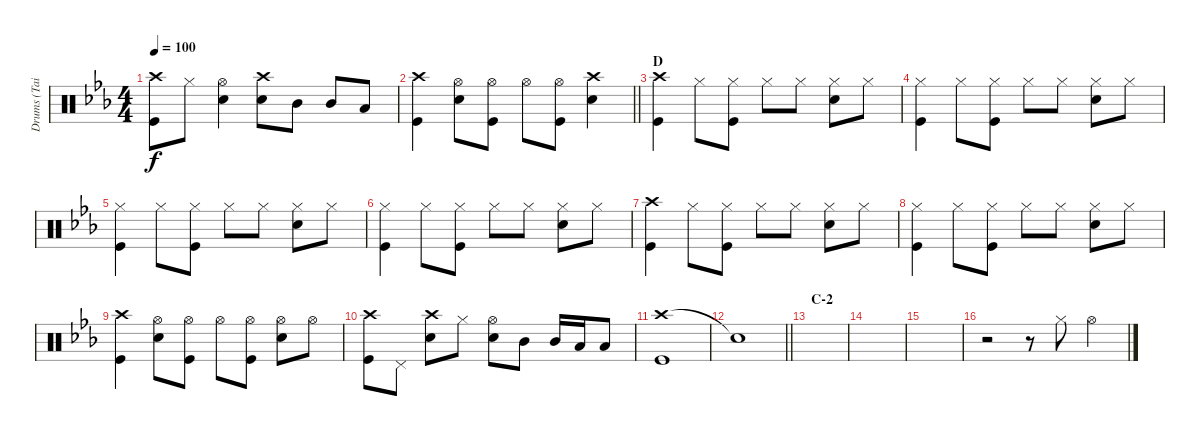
\track ("Drums (Tainaka Ritsu)" "Drums (Tai") {instrument percussion}
\staff {score}
\articulation defaults
\ts (4 4)
\tempo 100
\clef neutral
\ks eb
("Crash high (hit)" "Kick (hit)").8{dy f} "Hi-Hat (closed)".8 ("Hi-Hat (open)" "Snare (hit) 2").4 ("Crash high (hit)" "Snare (hit) 2").8 "Mid Tom (hit)".8 "Mid Tom (hit)".8 "Low Tom (hit)".8 |
\barLineRight lightlight
("Crash high (hit)" "Kick (hit)").4 ("Hi-Hat (open)" "Snare (hit) 2").8 ("Hi-Hat (open)" "Kick (hit)").8 "Hi-Hat (open)".8 ("Hi-Hat (open)" "Kick (hit)").8 ("Crash high (hit)" "Snare (hit) 2").4 |
\section ("" "D")
("Crash high (hit)" "Kick (hit)").4 "Hi-Hat (closed)".8 ("Hi-Hat (closed)" "Kick (hit)").8 "Hi-Hat (closed)".8 "Hi-Hat (closed)".8 ("Hi-Hat (closed)" "Snare (hit) 2").8 "Hi-Hat (closed)".8 |
("Hi-Hat (closed)" "Kick (hit)").4 "Hi-Hat (closed)".8 ("Hi-Hat (closed)" "Kick (hit)").8 "Hi-Hat (closed)".8 "Hi-Hat (closed)".8 ("Hi-Hat (closed)" "Snare (hit) 2").8 "Hi-Hat (closed)".8 |
("Hi-Hat (closed)" "Kick (hit)").4 "Hi-Hat (closed)".8 ("Hi-Hat (closed)" "Kick (hit)").8 "Hi-Hat (closed)".8 "Hi-Hat (closed)".8 ("Hi-Hat (closed)" "Snare (hit) 2").8 "Hi-Hat (closed)".8 |
("Hi-Hat (closed)" "Kick (hit)").4 "Hi-Hat (closed)".8 ("Hi-Hat (closed)" "Kick (hit)").8 "Hi-Hat (closed)".8 "Hi-Hat (closed)".8 ("Hi-Hat (closed)" "Snare (hit) 2").8 "Hi-Hat (closed)".8 |
("Crash high (hit)" "Kick (hit)").4 "Hi-Hat (closed)".8 ("Hi-Hat (closed)" "Kick (hit)").8 "Hi-Hat (closed)".8 "Hi-Hat (closed)".8 ("Hi-Hat (closed)" "Snare (hit) 2").8 "Hi-Hat (closed)".8 |
("Hi-Hat (closed)" "Kick (hit)").4 "Hi-Hat (closed)".8 ("Hi-Hat (closed)" "Kick (hit)").8 "Hi-Hat (closed)".8 "Hi-Hat (closed)".8 ("Hi-Hat (closed)" "Snare (hit) 2").8 "Hi-Hat (closed)".8 |
("Crash high (hit)" "Kick (hit)").4 ("Hi-Hat (open)" "Snare (hit) 2").8 ("Hi-Hat (open)" "Kick (hit)").8 "Hi-Hat (open)".8 ("Hi-Hat (open)" "Kick (hit)").8 ("Hi-Hat (open)" "Snare (hit) 2").8 "Hi-Hat (open)".8 |
("Crash high (hit)" "Kick (hit)").8 "Pedal Hi-Hat (hit)".8 ("Crash high (hit)" "Snare (hit) 2").8 "Hi-Hat (closed)".8 ("Hi-Hat (open)" "Snare (hit) 2").8 "Mid Tom (hit)".8 "Mid Tom (hit)".16 "Low Tom (hit)".16 "Low Tom (hit)".8 |
("Crash high (hit)" "Kick (hit)").1 |
\barLineRight lightlight "Snare (hit)"{t}.1
|
\section ("" "C-2")
|
|
|
r.2 r.8 "Hi-Hat (closed)".8 "Hi-Hat (open)".4
